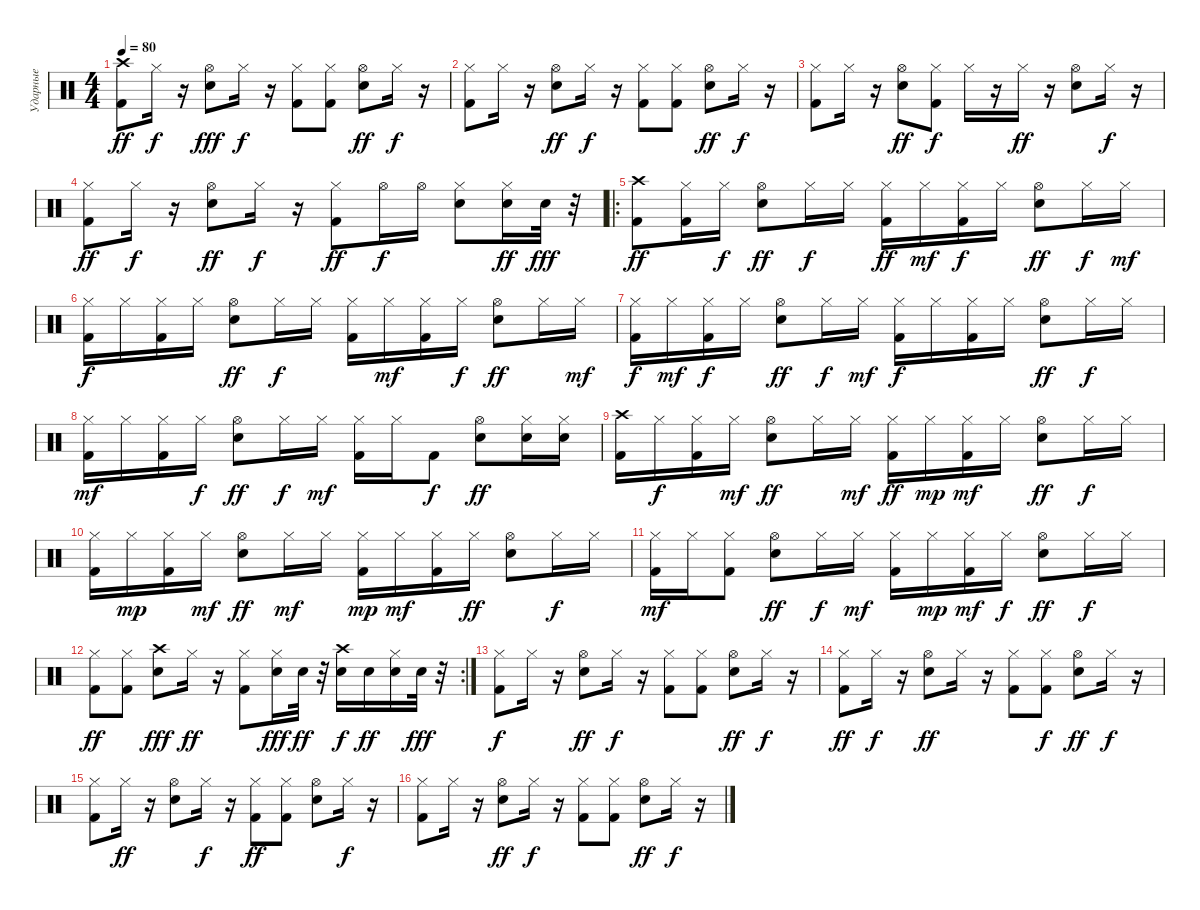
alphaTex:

\track ("Ударные" "Ударные") {instrument percussion}
\staff {score}
\articulation defaults
\ts (4 4)
\tempo 80
\clef neutral
\ks c
("Kick (hit) 2" "Crash high (hit)").8{dy ff} "Hi-Hat (closed)".16{dy f} r.16 ("Electric Snare (hit)" "Hi-Hat (open)").8{dy fff} "Hi-Hat (closed)".16{dy f} r.16 ("Kick (hit) 2" "Hi-Hat (closed)").8 ("Kick (hit) 2" "Hi-Hat (closed)").8 ("Electric Snare (hit)" "Hi-Hat (open)").8{dy ff} "Hi-Hat (closed)".16{dy f} r.16 |
("Kick (hit) 2" "Hi-Hat (closed)").8 "Hi-Hat (closed)".16 r.16 ("Electric Snare (hit)" "Hi-Hat (open)").8{dy ff} "Hi-Hat (closed)".16{dy f} r.16 ("Kick (hit) 2" "Hi-Hat (closed)").8 ("Kick (hit) 2" "Hi-Hat (closed)").8 ("Electric Snare (hit)" "Hi-Hat (open)").8{dy ff} "Hi-Hat (closed)".16{dy f} r.16 |
("Kick (hit) 2" "Hi-Hat (closed)").8 "Hi-Hat (closed)".16 r.16 ("Electric Snare (hit)" "Hi-Hat (open)").8{dy ff} ("Kick (hit) 2" "Hi-Hat (closed)").8{dy f} "Hi-Hat (closed)".16 r.16 "Hi-Hat (closed)".16{dy ff} r.16 ("Electric Snare (hit)" "Hi-Hat (open)").8 "Hi-Hat (closed)".16{dy f} r.16 |
("Kick (hit) 2" "Hi-Hat (closed)").8{dy ff} "Hi-Hat (closed)".16{dy f} r.16 ("Electric Snare (hit)" "Hi-Hat (open)").8{dy ff} "Hi-Hat (closed)".16{dy f} r.16 ("Kick (hit) 2" "Hi-Hat (closed)").8{dy ff} "Hi-Hat (open)".16{dy f} "Hi-Hat (open)".16 ("Electric Snare (hit)" "Hi-Hat (closed)").8 ("Hi-Hat (closed)" "Electric Snare (hit)").16{dy ff} "Electric Snare (hit)".32{dy fff} r.32 |
\ro
("Kick (hit) 2" "Crash high (hit)").8{dy ff} ("Kick (hit) 2" "Hi-Hat (closed)").16 "Hi-Hat (closed)".16{dy f} ("Electric Snare (hit)" "Hi-Hat (open)").8{dy ff} "Hi-Hat (closed)".16{dy f} "Hi-Hat (closed)".16 ("Kick (hit) 2" "Hi-Hat (closed)").16{dy ff} "Hi-Hat (closed)".16{dy mf} ("Kick (hit) 2" "Hi-Hat (closed)").16{dy f} "Hi-Hat (closed)".16 ("Electric Snare (hit)" "Hi-Hat (open)").8{dy ff} "Hi-Hat (closed)".16{dy f} "Hi-Hat (closed)".16{dy mf} |
("Kick (hit) 2" "Hi-Hat (closed)").16{dy f} "Hi-Hat (closed)".16 ("Kick (hit) 2" "Hi-Hat (closed)").16 "Hi-Hat (closed)".16 ("Electric Snare (hit)" "Hi-Hat (open)").8{dy ff} "Hi-Hat (closed)".16{dy f} "Hi-Hat (closed)".16 ("Kick (hit) 2" "Hi-Hat (closed)").16 "Hi-Hat (closed)".16{dy mf} ("Kick (hit) 2" "Hi-Hat (closed)").16 "Hi-Hat (closed)".16{dy f} ("Electric Snare (hit)" "Hi-Hat (open)").8{dy ff} "Hi-Hat (closed)".16 "Hi-Hat (closed)".16{dy mf} |
("Kick (hit) 2" "Hi-Hat (closed)").16{dy f} "Hi-Hat (closed)".16{dy mf} ("Kick (hit) 2" "Hi-Hat (closed)").16{dy f} "Hi-Hat (closed)".16 ("Electric Snare (hit)" "Hi-Hat (open)").8{dy ff} "Hi-Hat (closed)".16{dy f} "Hi-Hat (closed)".16{dy mf} ("Kick (hit) 2" "Hi-Hat (closed)").16{dy f} "Hi-Hat (closed)".16 ("Kick (hit) 2" "Hi-Hat (closed)").16 "Hi-Hat (closed)".16 ("Electric Snare (hit)" "Hi-Hat (open)").8{dy ff} "Hi-Hat (closed)".16{dy f} "Hi-Hat (closed)".16 |
("Kick (hit) 2" "Hi-Hat (closed)").16{dy mf} "Hi-Hat (closed)".16 ("Kick (hit) 2" "Hi-Hat (closed)").16 "Hi-Hat (closed)".16{dy f} ("Electric Snare (hit)" "Hi-Hat (open)").8{dy ff} "Hi-Hat (closed)".16{dy f} "Hi-Hat (closed)".16{dy mf} ("Kick (hit) 2" "Hi-Hat (closed)").16 "Hi-Hat (closed)".16 "Kick (hit) 2".8{dy f} ("Electric Snare (hit)" "Hi-Hat (open)").8{dy ff} ("Hi-Hat (closed)" "Electric Snare (hit)").16 ("Hi-Hat (closed)" "Electric Snare (hit)").16 |
("Kick (hit) 2" "Crash high (hit)").16 "Hi-Hat (closed)".16{dy f} ("Kick (hit) 2" "Hi-Hat (closed)").16 "Hi-Hat (closed)".16{dy mf} ("Electric Snare (hit)" "Hi-Hat (open)").8{dy ff} "Hi-Hat (closed)".16 "Hi-Hat (closed)".16{dy mf} ("Kick (hit) 2" "Hi-Hat (closed)").16{dy ff} "Hi-Hat (closed)".16{dy mp} ("Kick (hit) 2" "Hi-Hat (closed)").16{dy mf} "Hi-Hat (closed)".16 ("Electric Snare (hit)" "Hi-Hat (open)").8{dy ff} "Hi-Hat (closed)".16{dy f} "Hi-Hat (closed)".16 |
("Kick (hit) 2" "Hi-Hat (closed)").16 "Hi-Hat (closed)".16{dy mp} ("Kick (hit) 2" "Hi-Hat (closed)").16 "Hi-Hat (closed)".16{dy mf} ("Electric Snare (hit)" "Hi-Hat (open)").8{dy ff} "Hi-Hat (closed)".16{dy mf} "Hi-Hat (closed)".16 ("Kick (hit) 2" "Hi-Hat (closed)").16{dy mp} "Hi-Hat (closed)".16{dy mf} ("Kick (hit) 2" "Hi-Hat (closed)").16 "Hi-Hat (closed)".16{dy ff} ("Electric Snare (hit)" "Hi-Hat (open)").8 "Hi-Hat (closed)".16{dy f} "Hi-Hat (closed)".16 |
("Kick (hit) 2" "Hi-Hat (closed)").16{dy mf} "Hi-Hat (closed)".16 ("Kick (hit) 2" "Hi-Hat (closed)").8 ("Electric Snare (hit)" "Hi-Hat (open)").8{dy ff} "Hi-Hat (closed)".16{dy f} "Hi-Hat (closed)".16{dy mf} ("Kick (hit) 2" "Hi-Hat (closed)").16 "Hi-Hat (closed)".16{dy mp} ("Kick (hit) 2" "Hi-Hat (closed)").16{dy mf} "Hi-Hat (closed)".16{dy f} ("Electric Snare (hit)" "Hi-Hat (open)").8{dy ff} "Hi-Hat (closed)".16{dy f} "Hi-Hat (closed)".16 |
\rc 2
("Kick (hit) 2" "Hi-Hat (closed)").8{dy ff} ("Kick (hit) 2" "Hi-Hat (closed)").8 ("Electric Snare (hit)" "Crash high (hit)").8{dy fff} "Hi-Hat (closed)".16{dy ff} r.16 ("Kick (hit) 2" "Hi-Hat (closed)").8 ("Hi-Hat (closed)" "Electric Snare (hit)").16{dy fff} "Electric Snare (hit)".32{dy ff} r.32 ("Electric Snare (hit)" "Crash high (hit)").16{dy f} "Electric Snare (hit)".16{dy ff} ("Hi-Hat (closed)" "Electric Snare (hit)").16 "Electric Snare (hit)".32{dy fff} r.32 |
("Kick (hit) 2" "Hi-Hat (closed)").8{dy f} "Hi-Hat (closed)".16 r.16 ("Electric Snare (hit)" "Hi-Hat (open)").8{dy ff} "Hi-Hat (closed)".16{dy f} r.16 ("Kick (hit) 2" "Hi-Hat (closed)").8 ("Kick (hit) 2" "Hi-Hat (closed)").8 ("Electric Snare (hit)" "Hi-Hat (open)").8{dy ff} "Hi-Hat (closed)".16{dy f} r.16 |
("Kick (hit) 2" "Hi-Hat (closed)").8{dy ff} "Hi-Hat (closed)".16{dy f} r.16 ("Electric Snare (hit)" "Hi-Hat (open)").8{dy ff} "Hi-Hat (closed)".16 r.16 ("Kick (hit) 2" "Hi-Hat (closed)").8 ("Kick (hit) 2" "Hi-Hat (closed)").8{dy f} ("Electric Snare (hit)" "Hi-Hat (open)").8{dy ff} "Hi-Hat (closed)".16{dy f} r.16 |
("Kick (hit) 2" "Hi-Hat (closed)").8 "Hi-Hat (closed)".16{dy ff} r.16 ("Electric Snare (hit)" "Hi-Hat (open)").8 "Hi-Hat (closed)".16{dy f} r.16 ("Kick (hit) 2" "Hi-Hat (closed)").8{dy ff} ("Kick (hit) 2" "Hi-Hat (closed)").8 ("Electric Snare (hit)" "Hi-Hat (open)").8 "Hi-Hat (closed)".16{dy f} r.16 |
("Kick (hit) 2" "Hi-Hat (closed)").8 "Hi-Hat (closed)".16 r.16 ("Electric Snare (hit)" "Hi-Hat (open)").8{dy ff} "Hi-Hat (closed)".16{dy f} r.16 ("Kick (hit) 2" "Hi-Hat (closed)").8 ("Kick (hit) 2" "Hi-Hat (closed)").8 ("Electric Snare (hit)" "Hi-Hat (open)").8{dy ff} "Hi-Hat (closed)".16{dy f} r.16
